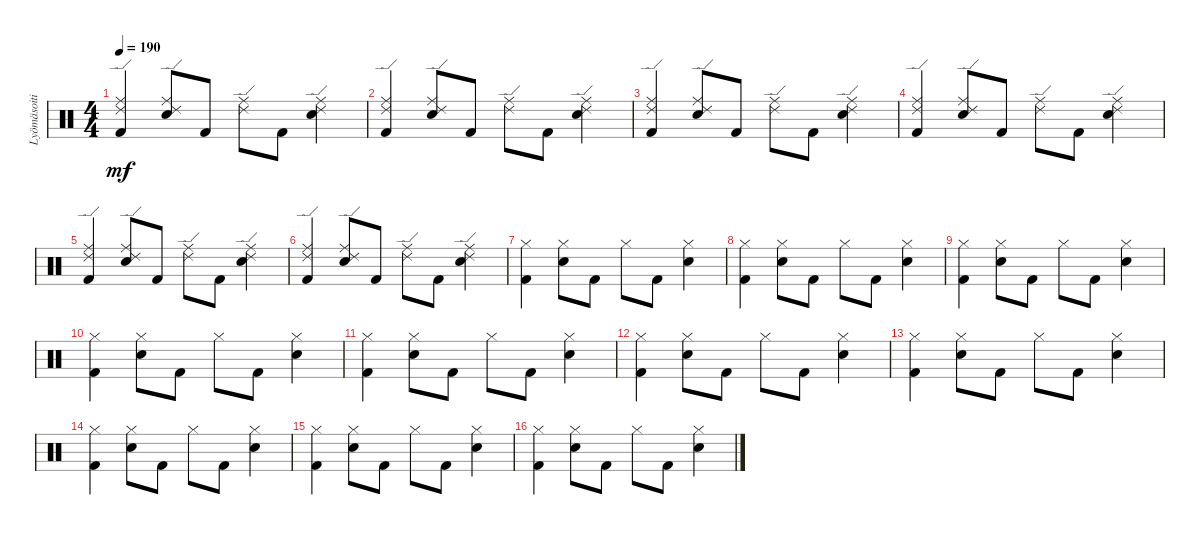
\track ("Lyömäsoitin" "Lyömäsoiti") {instrument percussion}
\staff {score}
\articulation defaults
\ts (4 4)
\tempo 190
\clef neutral
\ks c
("Ride (edge) 2" "Ride (middle)" "Kick (hit) 2").4{dy mf} ("Ride (edge) 2" "Ride (middle)" "Snare (hit) 2").8 "Kick (hit) 2".8 ("Ride (edge) 2" "Ride (middle)").8 "Kick (hit) 2".8 ("Ride (edge) 2" "Ride (middle)" "Snare (hit) 2").4 |
("Ride (edge) 2" "Ride (middle)" "Kick (hit) 2").4 ("Ride (edge) 2" "Ride (middle)" "Snare (hit) 2").8 "Kick (hit) 2".8 ("Ride (edge) 2" "Ride (middle)").8 "Kick (hit) 2".8 ("Ride (edge) 2" "Ride (middle)" "Snare (hit) 2").4 |
("Ride (edge) 2" "Ride (middle)" "Kick (hit) 2").4 ("Ride (edge) 2" "Ride (middle)" "Snare (hit) 2").8 "Kick (hit) 2".8 ("Ride (edge) 2" "Ride (middle)").8 "Kick (hit) 2".8 ("Ride (edge) 2" "Ride (middle)" "Snare (hit) 2").4 |
("Ride (edge) 2" "Ride (middle)" "Kick (hit) 2").4 ("Ride (edge) 2" "Ride (middle)" "Snare (hit) 2").8 "Kick (hit) 2".8 ("Ride (edge) 2" "Ride (middle)").8 "Kick (hit) 2".8 ("Ride (edge) 2" "Ride (middle)" "Snare (hit) 2").4 |
("Ride (edge) 2" "Ride (middle)" "Kick (hit) 2").4 ("Ride (edge) 2" "Ride (middle)" "Snare (hit) 2").8 "Kick (hit) 2".8 ("Ride (edge) 2" "Ride (middle)").8 "Kick (hit) 2".8 ("Ride (edge) 2" "Ride (middle)" "Snare (hit) 2").4 |
("Ride (edge) 2" "Ride (middle)" "Kick (hit) 2").4 ("Ride (edge) 2" "Ride (middle)" "Snare (hit) 2").8 "Kick (hit) 2".8 ("Ride (edge) 2" "Ride (middle)").8 "Kick (hit) 2".8 ("Ride (edge) 2" "Ride (middle)" "Snare (hit) 2").4 |
("Hi-Hat (closed)" "Kick (hit) 2").4 ("Hi-Hat (closed)" "Snare (hit) 2").8 "Kick (hit) 2".8 "Hi-Hat (closed)".8 "Kick (hit) 2".8 ("Hi-Hat (closed)" "Snare (hit) 2").4 |
("Hi-Hat (closed)" "Kick (hit) 2").4 ("Hi-Hat (closed)" "Snare (hit) 2").8 "Kick (hit) 2".8 "Hi-Hat (closed)".8 "Kick (hit) 2".8 ("Hi-Hat (closed)" "Snare (hit) 2").4 |
("Hi-Hat (closed)" "Kick (hit) 2").4 ("Hi-Hat (closed)" "Snare (hit) 2").8 "Kick (hit) 2".8 "Hi-Hat (closed)".8 "Kick (hit) 2".8 ("Hi-Hat (closed)" "Snare (hit) 2").4 |
("Hi-Hat (closed)" "Kick (hit) 2").4 ("Hi-Hat (closed)" "Snare (hit) 2").8 "Kick (hit) 2".8 "Hi-Hat (closed)".8 "Kick (hit) 2".8 ("Hi-Hat (closed)" "Snare (hit) 2").4 |
("Hi-Hat (closed)" "Kick (hit) 2").4 ("Hi-Hat (closed)" "Snare (hit) 2").8 "Kick (hit) 2".8 "Hi-Hat (closed)".8 "Kick (hit) 2".8 ("Hi-Hat (closed)" "Snare (hit) 2").4 |
("Hi-Hat (closed)" "Kick (hit) 2").4 ("Hi-Hat (closed)" "Snare (hit) 2").8 "Kick (hit) 2".8 "Hi-Hat (closed)".8 "Kick (hit) 2".8 ("Hi-Hat (closed)" "Snare (hit) 2").4 |
("Hi-Hat (closed)" "Kick (hit) 2").4 ("Hi-Hat (closed)" "Snare (hit) 2").8 "Kick (hit) 2".8 "Hi-Hat (closed)".8 "Kick (hit) 2".8 ("Hi-Hat (closed)" "Snare (hit) 2").4 |
("Hi-Hat (closed)" "Kick (hit) 2").4 ("Hi-Hat (closed)" "Snare (hit) 2").8 "Kick (hit) 2".8 "Hi-Hat (closed)".8 "Kick (hit) 2".8 ("Hi-Hat (closed)" "Snare (hit) 2").4 |
("Hi-Hat (closed)" "Kick (hit) 2").4 ("Hi-Hat (closed)" "Snare (hit) 2").8 "Kick (hit) 2".8 "Hi-Hat (closed)".8 "Kick (hit) 2".8 ("Hi-Hat (closed)" "Snare (hit) 2").4 |
("Hi-Hat (closed)" "Kick (hit) 2").4 ("Hi-Hat (closed)" "Snare (hit) 2").8 "Kick (hit) 2".8 "Hi-Hat (closed)".8 "Kick (hit) 2".8 ("Hi-Hat (closed)" "Snare (hit) 2").4
